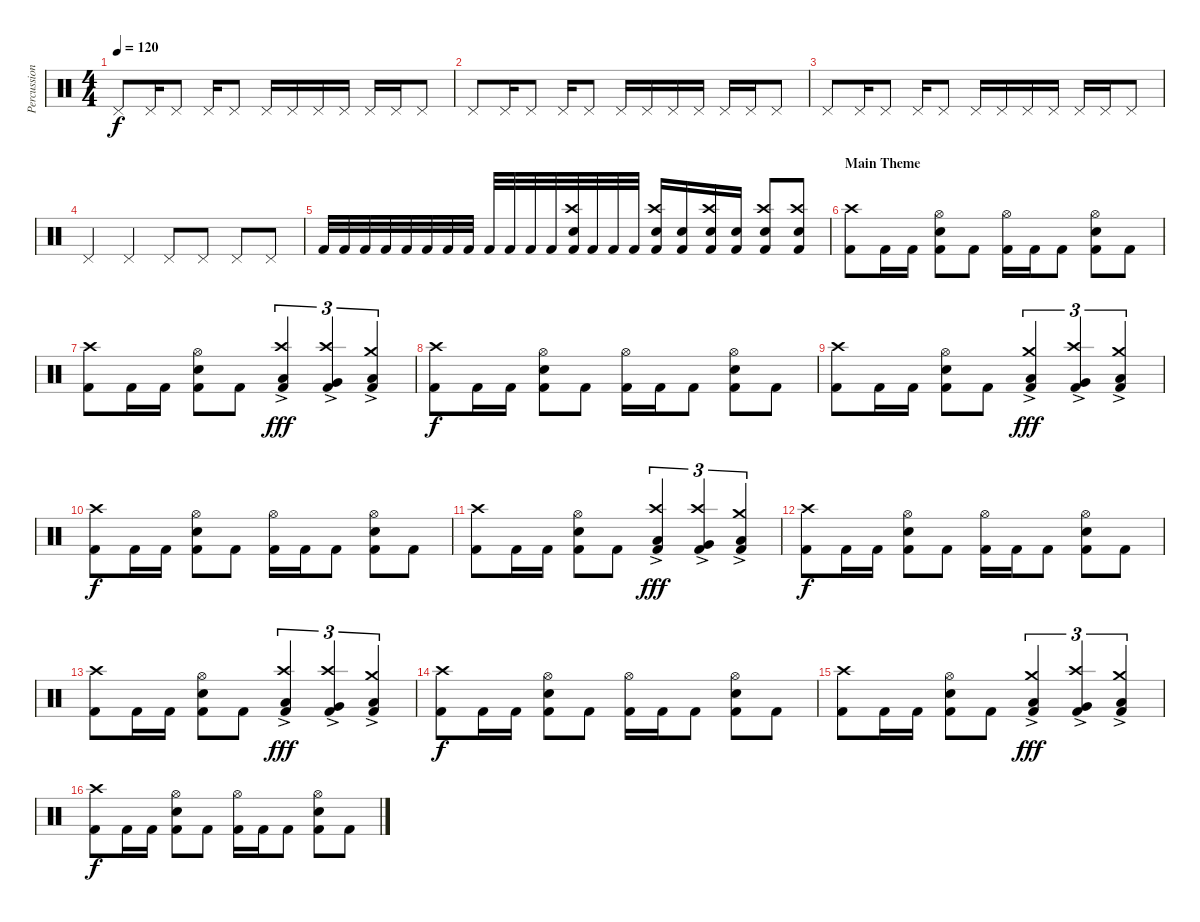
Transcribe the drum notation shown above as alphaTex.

\track ("Percussion" "Percussion") {instrument percussion}
\staff {score}
\articulation defaults
\ts (4 4)
\tempo 120
\clef neutral
\ks c "Pedal Hi-Hat (hit)".8{dy f} "Pedal Hi-Hat (hit)".16 "Pedal Hi-Hat (hit)".8 "Pedal Hi-Hat (hit)".16 "Pedal Hi-Hat (hit)".8 "Pedal Hi-Hat (hit)".16 "Pedal Hi-Hat (hit)".16 "Pedal Hi-Hat (hit)".16 "Pedal Hi-Hat (hit)".16 "Pedal Hi-Hat (hit)".16 "Pedal Hi-Hat (hit)".16 "Pedal Hi-Hat (hit)".8
|
"Pedal Hi-Hat (hit)".8 "Pedal Hi-Hat (hit)".16 "Pedal Hi-Hat (hit)".8 "Pedal Hi-Hat (hit)".16 "Pedal Hi-Hat (hit)".8 "Pedal Hi-Hat (hit)".16 "Pedal Hi-Hat (hit)".16 "Pedal Hi-Hat (hit)".16 "Pedal Hi-Hat (hit)".16 "Pedal Hi-Hat (hit)".16 "Pedal Hi-Hat (hit)".16 "Pedal Hi-Hat (hit)".8 |
"Pedal Hi-Hat (hit)".8 "Pedal Hi-Hat (hit)".16 "Pedal Hi-Hat (hit)".8 "Pedal Hi-Hat (hit)".16 "Pedal Hi-Hat (hit)".8 "Pedal Hi-Hat (hit)".16 "Pedal Hi-Hat (hit)".16 "Pedal Hi-Hat (hit)".16 "Pedal Hi-Hat (hit)".16 "Pedal Hi-Hat (hit)".16 "Pedal Hi-Hat (hit)".16 "Pedal Hi-Hat (hit)".8 |
"Pedal Hi-Hat (hit)".4{volume 0} "Pedal Hi-Hat (hit)".4 "Pedal Hi-Hat (hit)".8 "Pedal Hi-Hat (hit)".8 "Pedal Hi-Hat (hit)".8 "Pedal Hi-Hat (hit)".8 |
"Kick (hit) 2".32{volume 16} "Kick (hit) 2".32 "Kick (hit) 2".32 "Kick (hit) 2".32 "Kick (hit) 2".32 "Kick (hit) 2".32 "Kick (hit) 2".32 "Kick (hit) 2".32 "Kick (hit) 2".32 "Kick (hit) 2".32 "Kick (hit) 2".32 "Kick (hit) 2".32 ("Crash high (hit)" "Electric Snare (hit)" "Kick (hit) 2").32 "Kick (hit) 2".32 "Kick (hit) 2".32 "Kick (hit) 2".32 ("Crash high (hit)" "Electric Snare (hit)" "Kick (hit) 2").16 ("Electric Snare (hit)" "Kick (hit) 2").16 ("Crash high (hit)" "Electric Snare (hit)" "Kick (hit) 2").16 ("Electric Snare (hit)" "Kick (hit) 2").16 ("Crash high (hit)" "Electric Snare (hit)" "Kick (hit) 2").8 ("Crash high (hit)" "Electric Snare (hit)" "Kick (hit) 2").8 |
\section ("" "Main Theme")
("Crash high (hit)" "Kick (hit) 2").8 "Kick (hit) 2".16 "Kick (hit) 2".16 ("Hi-Hat (open)" "Electric Snare (hit)" "Kick (hit) 2").8 "Kick (hit) 2".8 ("Hi-Hat (open)" "Kick (hit) 2").16 "Kick (hit) 2".16 "Kick (hit) 2".8 ("Hi-Hat (open)" "Electric Snare (hit)" "Kick (hit) 2").8 "Kick (hit) 2".8 |
("Crash high (hit)" "Kick (hit) 2").8 "Kick (hit) 2".16 "Kick (hit) 2".16 ("Hi-Hat (open)" "Electric Snare (hit)" "Kick (hit) 2").8 "Kick (hit) 2".8 ("Crash high (hit)" "Low Floor Tom (hit)"{ac} "Kick (hit) 2").4{tu (3 2) dy fff} ("Crash high (hit)" "Very Low Tom (hit)"{ac} "Kick (hit) 2").4{tu (3 2)} ("Crash medium (hit)" "Low Tom (hit)"{ac} "Kick (hit) 2").4{tu (3 2)} |
("Crash high (hit)" "Kick (hit) 2").8{dy f} "Kick (hit) 2".16 "Kick (hit) 2".16 ("Hi-Hat (open)" "Electric Snare (hit)" "Kick (hit) 2").8 "Kick (hit) 2".8 ("Hi-Hat (open)" "Kick (hit) 2").16 "Kick (hit) 2".16 "Kick (hit) 2".8 ("Hi-Hat (open)" "Electric Snare (hit)" "Kick (hit) 2").8 "Kick (hit) 2".8 |
("Crash high (hit)" "Kick (hit) 2").8 "Kick (hit) 2".16 "Kick (hit) 2".16 ("Hi-Hat (open)" "Electric Snare (hit)" "Kick (hit) 2").8 "Kick (hit) 2".8 ("Crash medium (hit)" "Low Tom (hit)"{ac} "Kick (hit) 2").4{tu (3 2) dy fff} ("Crash high (hit)" "Very Low Tom (hit)"{ac} "Kick (hit) 2").4{tu (3 2)} ("Crash medium (hit)" "Low Tom (hit)"{ac} "Kick (hit) 2").4{tu (3 2)} |
("Crash high (hit)" "Kick (hit) 2").8{dy f} "Kick (hit) 2".16 "Kick (hit) 2".16 ("Hi-Hat (open)" "Electric Snare (hit)" "Kick (hit) 2").8 "Kick (hit) 2".8 ("Hi-Hat (open)" "Kick (hit) 2").16 "Kick (hit) 2".16 "Kick (hit) 2".8 ("Hi-Hat (open)" "Electric Snare (hit)" "Kick (hit) 2").8 "Kick (hit) 2".8 |
("Crash high (hit)" "Kick (hit) 2").8 "Kick (hit) 2".16 "Kick (hit) 2".16 ("Hi-Hat (open)" "Electric Snare (hit)" "Kick (hit) 2").8 "Kick (hit) 2".8 ("Crash high (hit)" "Low Floor Tom (hit)"{ac} "Kick (hit) 2").4{tu (3 2) dy fff} ("Crash high (hit)" "Very Low Tom (hit)"{ac} "Kick (hit) 2").4{tu (3 2)} ("Crash medium (hit)" "Low Tom (hit)"{ac} "Kick (hit) 2").4{tu (3 2)} |
("Crash high (hit)" "Kick (hit) 2").8{dy f} "Kick (hit) 2".16 "Kick (hit) 2".16 ("Hi-Hat (open)" "Electric Snare (hit)" "Kick (hit) 2").8 "Kick (hit) 2".8 ("Hi-Hat (open)" "Kick (hit) 2").16 "Kick (hit) 2".16 "Kick (hit) 2".8 ("Hi-Hat (open)" "Electric Snare (hit)" "Kick (hit) 2").8 "Kick (hit) 2".8 |
("Crash high (hit)" "Kick (hit) 2").8 "Kick (hit) 2".16 "Kick (hit) 2".16 ("Hi-Hat (open)" "Electric Snare (hit)" "Kick (hit) 2").8 "Kick (hit) 2".8 ("Crash high (hit)" "Low Floor Tom (hit)"{ac} "Kick (hit) 2").4{tu (3 2) dy fff} ("Crash high (hit)" "Very Low Tom (hit)"{ac} "Kick (hit) 2").4{tu (3 2)} ("Crash medium (hit)" "Low Tom (hit)"{ac} "Kick (hit) 2").4{tu (3 2)} |
("Crash high (hit)" "Kick (hit) 2").8{dy f} "Kick (hit) 2".16 "Kick (hit) 2".16 ("Hi-Hat (open)" "Electric Snare (hit)" "Kick (hit) 2").8 "Kick (hit) 2".8 ("Hi-Hat (open)" "Kick (hit) 2").16 "Kick (hit) 2".16 "Kick (hit) 2".8 ("Hi-Hat (open)" "Electric Snare (hit)" "Kick (hit) 2").8 "Kick (hit) 2".8 |
("Crash high (hit)" "Kick (hit) 2").8 "Kick (hit) 2".16 "Kick (hit) 2".16 ("Hi-Hat (open)" "Electric Snare (hit)" "Kick (hit) 2").8 "Kick (hit) 2".8 ("Crash medium (hit)" "Low Tom (hit)"{ac} "Kick (hit) 2").4{tu (3 2) dy fff} ("Crash high (hit)" "Very Low Tom (hit)"{ac} "Kick (hit) 2").4{tu (3 2)} ("Crash medium (hit)" "Low Tom (hit)"{ac} "Kick (hit) 2").4{tu (3 2)} |
("Crash high (hit)" "Kick (hit) 2").8{dy f} "Kick (hit) 2".16 "Kick (hit) 2".16 ("Hi-Hat (open)" "Electric Snare (hit)" "Kick (hit) 2").8 "Kick (hit) 2".8 ("Hi-Hat (open)" "Kick (hit) 2").16 "Kick (hit) 2".16 "Kick (hit) 2".8 ("Hi-Hat (open)" "Electric Snare (hit)" "Kick (hit) 2").8 "Kick (hit) 2".8
